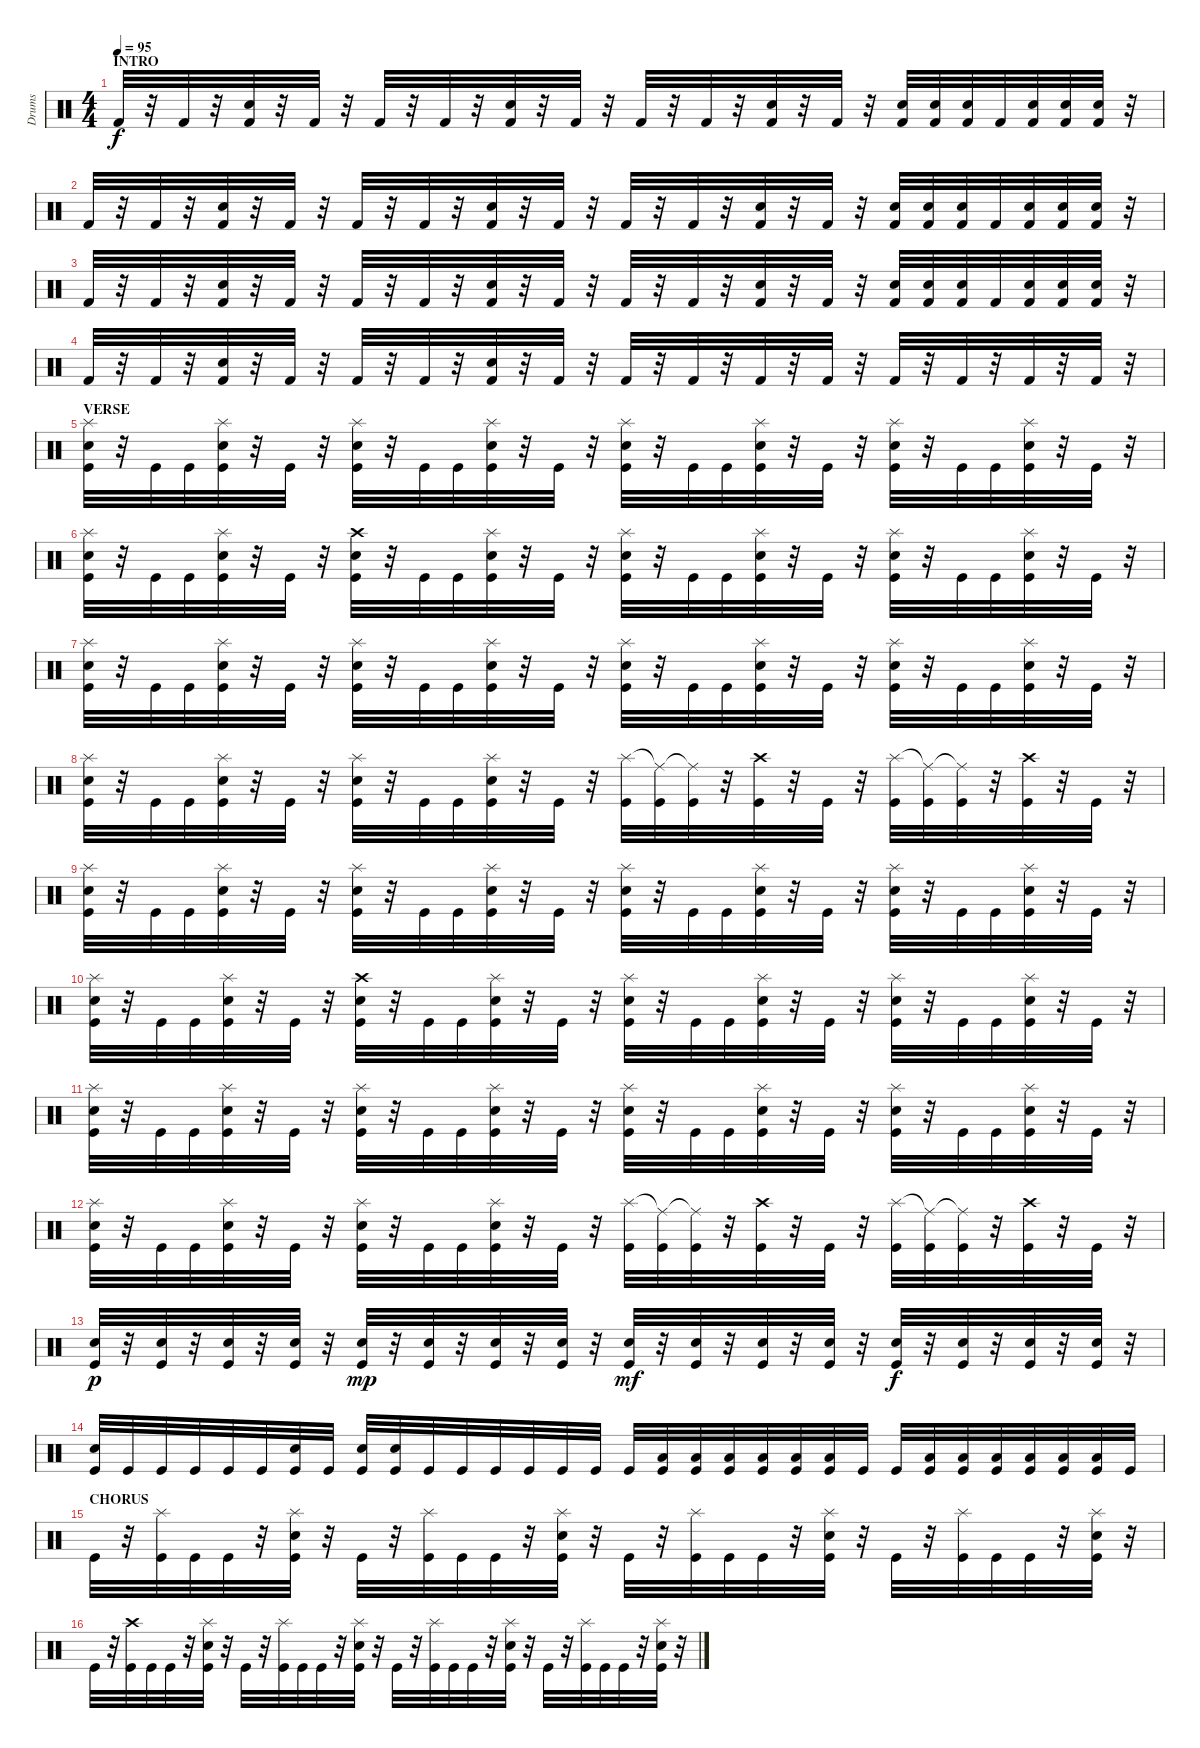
\track ("Drums" "Drums") {instrument percussion}
\staff {score}
\articulation defaults
\ts (4 4)
\section ("" "INTRO")
\tempo 95
\clef neutral
\ks c "Kick (hit) 2".32{dy f volume 8}
r.32 "Kick (hit) 2".32 r.32 ("Electric Snare (hit)" "Kick (hit) 2").32 r.32 "Kick (hit) 2".32 r.32 "Kick (hit) 2".32 r.32 "Kick (hit) 2".32 r.32 ("Electric Snare (hit)" "Kick (hit) 2").32 r.32 "Kick (hit) 2".32 r.32 "Kick (hit) 2".32 r.32 "Kick (hit) 2".32 r.32 ("Electric Snare (hit)" "Kick (hit) 2").32 r.32 "Kick (hit) 2".32 r.32 ("Electric Snare (hit)" "Kick (hit) 2").32 ("Electric Snare (hit)" "Kick (hit) 2").32 ("Electric Snare (hit)" "Kick (hit) 2").32 "Kick (hit) 2".32 ("Electric Snare (hit)" "Kick (hit) 2").32 ("Electric Snare (hit)" "Kick (hit) 2").32 ("Electric Snare (hit)" "Kick (hit) 2").32 r.32 |
"Kick (hit) 2".32 r.32 "Kick (hit) 2".32 r.32 ("Electric Snare (hit)" "Kick (hit) 2").32 r.32 "Kick (hit) 2".32 r.32 "Kick (hit) 2".32 r.32 "Kick (hit) 2".32 r.32 ("Electric Snare (hit)" "Kick (hit) 2").32 r.32 "Kick (hit) 2".32 r.32 "Kick (hit) 2".32 r.32 "Kick (hit) 2".32 r.32 ("Electric Snare (hit)" "Kick (hit) 2").32 r.32 "Kick (hit) 2".32 r.32 ("Electric Snare (hit)" "Kick (hit) 2").32 ("Electric Snare (hit)" "Kick (hit) 2").32 ("Electric Snare (hit)" "Kick (hit) 2").32 "Kick (hit) 2".32 ("Electric Snare (hit)" "Kick (hit) 2").32 ("Electric Snare (hit)" "Kick (hit) 2").32 ("Electric Snare (hit)" "Kick (hit) 2").32 r.32 |
"Kick (hit) 2".32 r.32 "Kick (hit) 2".32 r.32 ("Electric Snare (hit)" "Kick (hit) 2").32 r.32 "Kick (hit) 2".32 r.32 "Kick (hit) 2".32 r.32 "Kick (hit) 2".32 r.32 ("Electric Snare (hit)" "Kick (hit) 2").32 r.32 "Kick (hit) 2".32 r.32 "Kick (hit) 2".32 r.32 "Kick (hit) 2".32 r.32 ("Electric Snare (hit)" "Kick (hit) 2").32 r.32 "Kick (hit) 2".32 r.32 ("Electric Snare (hit)" "Kick (hit) 2").32 ("Electric Snare (hit)" "Kick (hit) 2").32 ("Electric Snare (hit)" "Kick (hit) 2").32 "Kick (hit) 2".32 ("Electric Snare (hit)" "Kick (hit) 2").32 ("Electric Snare (hit)" "Kick (hit) 2").32 ("Electric Snare (hit)" "Kick (hit) 2").32 r.32 |
"Kick (hit) 2".32 r.32 "Kick (hit) 2".32 r.32 ("Electric Snare (hit)" "Kick (hit) 2").32 r.32 "Kick (hit) 2".32 r.32 "Kick (hit) 2".32 r.32 "Kick (hit) 2".32 r.32 ("Electric Snare (hit)" "Kick (hit) 2").32 r.32 "Kick (hit) 2".32 r.32 "Kick (hit) 2".32 r.32 "Kick (hit) 2".32 r.32 "Kick (hit) 2".32 r.32 "Kick (hit) 2".32 r.32 "Kick (hit) 2".32 r.32 "Kick (hit) 2".32 r.32 "Kick (hit) 2".32 r.32 "Kick (hit) 2".32 r.32 |
\section ("" "VERSE")
("Splash (hit)" "Snare (hit) 2" "Kick (hit)").32{volume 12} r.32 "Kick (hit)".32 "Kick (hit)".32 ("Splash (hit)" "Snare (hit) 2" "Kick (hit)").32 r.32 "Kick (hit)".32 r.32 ("Splash (hit)" "Snare (hit) 2" "Kick (hit)").32 r.32 "Kick (hit)".32 "Kick (hit)".32 ("Splash (hit)" "Snare (hit) 2" "Kick (hit)").32 r.32 "Kick (hit)".32 r.32 ("Splash (hit)" "Snare (hit) 2" "Kick (hit)").32 r.32 "Kick (hit)".32 "Kick (hit)".32 ("Splash (hit)" "Snare (hit) 2" "Kick (hit)").32 r.32 "Kick (hit)".32 r.32 ("Splash (hit)" "Snare (hit) 2" "Kick (hit)").32 r.32 "Kick (hit)".32 "Kick (hit)".32 ("Splash (hit)" "Snare (hit) 2" "Kick (hit)").32 r.32 "Kick (hit)".32 r.32 |
("Splash (hit)" "Snare (hit) 2" "Kick (hit)").32 r.32 "Kick (hit)".32 "Kick (hit)".32 ("Splash (hit)" "Snare (hit) 2" "Kick (hit)").32 r.32 "Kick (hit)".32 r.32 ("Crash high (hit)" "Snare (hit) 2" "Kick (hit)").32 r.32 "Kick (hit)".32 "Kick (hit)".32 ("Splash (hit)" "Snare (hit) 2" "Kick (hit)").32 r.32 "Kick (hit)".32 r.32 ("Splash (hit)" "Snare (hit) 2" "Kick (hit)").32 r.32 "Kick (hit)".32 "Kick (hit)".32 ("Splash (hit)" "Snare (hit) 2" "Kick (hit)").32 r.32 "Kick (hit)".32 r.32 ("Splash (hit)" "Snare (hit) 2" "Kick (hit)").32 r.32 "Kick (hit)".32 "Kick (hit)".32 ("Splash (hit)" "Snare (hit) 2" "Kick (hit)").32 r.32 "Kick (hit)".32 r.32 |
("Splash (hit)" "Snare (hit) 2" "Kick (hit)").32 r.32 "Kick (hit)".32 "Kick (hit)".32 ("Splash (hit)" "Snare (hit) 2" "Kick (hit)").32 r.32 "Kick (hit)".32 r.32 ("Splash (hit)" "Snare (hit) 2" "Kick (hit)").32 r.32 "Kick (hit)".32 "Kick (hit)".32 ("Splash (hit)" "Snare (hit) 2" "Kick (hit)").32 r.32 "Kick (hit)".32 r.32 ("Splash (hit)" "Snare (hit) 2" "Kick (hit)").32 r.32 "Kick (hit)".32 "Kick (hit)".32 ("Splash (hit)" "Snare (hit) 2" "Kick (hit)").32 r.32 "Kick (hit)".32 r.32 ("Splash (hit)" "Snare (hit) 2" "Kick (hit)").32 r.32 "Kick (hit)".32 "Kick (hit)".32 ("Splash (hit)" "Snare (hit) 2" "Kick (hit)").32 r.32 "Kick (hit)".32 r.32 |
("Splash (hit)" "Snare (hit) 2" "Kick (hit)").32 r.32 "Kick (hit)".32 "Kick (hit)".32 ("Splash (hit)" "Snare (hit) 2" "Kick (hit)").32 r.32 "Kick (hit)".32 r.32 ("Splash (hit)" "Snare (hit) 2" "Kick (hit)").32 r.32 "Kick (hit)".32 "Kick (hit)".32 ("Splash (hit)" "Snare (hit) 2" "Kick (hit)").32 r.32 "Kick (hit)".32 r.32 ("Splash (hit)" "Kick (hit)").32 ("Ride (middle)"{t} "Kick (hit)").32 ("Ride (middle)"{t} "Kick (hit)").32 r.32 ("Crash high (hit)" "Kick (hit)").32 r.32 "Kick (hit)".32 r.32 ("Splash (hit)" "Kick (hit)").32 ("Ride (middle)"{t} "Kick (hit)").32 ("Ride (middle)"{t} "Kick (hit)").32 r.32 ("Crash high (hit)" "Kick (hit)").32 r.32 "Kick (hit)".32 r.32 |
("Splash (hit)" "Snare (hit) 2" "Kick (hit)").32{volume 12} r.32 "Kick (hit)".32 "Kick (hit)".32 ("Splash (hit)" "Snare (hit) 2" "Kick (hit)").32 r.32 "Kick (hit)".32 r.32 ("Splash (hit)" "Snare (hit) 2" "Kick (hit)").32 r.32 "Kick (hit)".32 "Kick (hit)".32 ("Splash (hit)" "Snare (hit) 2" "Kick (hit)").32 r.32 "Kick (hit)".32 r.32 ("Splash (hit)" "Snare (hit) 2" "Kick (hit)").32 r.32 "Kick (hit)".32 "Kick (hit)".32 ("Splash (hit)" "Snare (hit) 2" "Kick (hit)").32 r.32 "Kick (hit)".32 r.32 ("Splash (hit)" "Snare (hit) 2" "Kick (hit)").32 r.32 "Kick (hit)".32 "Kick (hit)".32 ("Splash (hit)" "Snare (hit) 2" "Kick (hit)").32 r.32 "Kick (hit)".32 r.32 |
("Splash (hit)" "Snare (hit) 2" "Kick (hit)").32 r.32 "Kick (hit)".32 "Kick (hit)".32 ("Splash (hit)" "Snare (hit) 2" "Kick (hit)").32 r.32 "Kick (hit)".32 r.32 ("Crash high (hit)" "Snare (hit) 2" "Kick (hit)").32 r.32 "Kick (hit)".32 "Kick (hit)".32 ("Splash (hit)" "Snare (hit) 2" "Kick (hit)").32 r.32 "Kick (hit)".32 r.32 ("Splash (hit)" "Snare (hit) 2" "Kick (hit)").32 r.32 "Kick (hit)".32 "Kick (hit)".32 ("Splash (hit)" "Snare (hit) 2" "Kick (hit)").32 r.32 "Kick (hit)".32 r.32 ("Splash (hit)" "Snare (hit) 2" "Kick (hit)").32 r.32 "Kick (hit)".32 "Kick (hit)".32 ("Splash (hit)" "Snare (hit) 2" "Kick (hit)").32 r.32 "Kick (hit)".32 r.32 |
("Splash (hit)" "Snare (hit) 2" "Kick (hit)").32 r.32 "Kick (hit)".32 "Kick (hit)".32 ("Splash (hit)" "Snare (hit) 2" "Kick (hit)").32 r.32 "Kick (hit)".32 r.32 ("Splash (hit)" "Snare (hit) 2" "Kick (hit)").32 r.32 "Kick (hit)".32 "Kick (hit)".32 ("Splash (hit)" "Snare (hit) 2" "Kick (hit)").32 r.32 "Kick (hit)".32 r.32 ("Splash (hit)" "Snare (hit) 2" "Kick (hit)").32 r.32 "Kick (hit)".32 "Kick (hit)".32 ("Splash (hit)" "Snare (hit) 2" "Kick (hit)").32 r.32 "Kick (hit)".32 r.32 ("Splash (hit)" "Snare (hit) 2" "Kick (hit)").32 r.32 "Kick (hit)".32 "Kick (hit)".32 ("Splash (hit)" "Snare (hit) 2" "Kick (hit)").32 r.32 "Kick (hit)".32 r.32 |
("Splash (hit)" "Snare (hit) 2" "Kick (hit)").32 r.32 "Kick (hit)".32 "Kick (hit)".32 ("Splash (hit)" "Snare (hit) 2" "Kick (hit)").32 r.32 "Kick (hit)".32 r.32 ("Splash (hit)" "Snare (hit) 2" "Kick (hit)").32 r.32 "Kick (hit)".32 "Kick (hit)".32 ("Splash (hit)" "Snare (hit) 2" "Kick (hit)").32 r.32 "Kick (hit)".32 r.32 ("Splash (hit)" "Kick (hit)").32 ("Ride (middle)"{t} "Kick (hit)").32 ("Ride (middle)"{t} "Kick (hit)").32 r.32 ("Crash high (hit)" "Kick (hit)").32 r.32 "Kick (hit)".32 r.32 ("Splash (hit)" "Kick (hit)").32 ("Ride (middle)"{t} "Kick (hit)").32 ("Ride (middle)"{t} "Kick (hit)").32 r.32 ("Crash high (hit)" "Kick (hit)").32 r.32 "Kick (hit)".32 r.32 |
("Snare (hit) 2" "Kick (hit)").32{dy p} r.32 ("Snare (hit) 2" "Kick (hit)").32 r.32 ("Snare (hit) 2" "Kick (hit)").32 r.32 ("Snare (hit) 2" "Kick (hit)").32 r.32 ("Snare (hit) 2" "Kick (hit)").32{dy mp} r.32 ("Snare (hit) 2" "Kick (hit)").32 r.32 ("Snare (hit) 2" "Kick (hit)").32 r.32 ("Snare (hit) 2" "Kick (hit)").32 r.32 ("Snare (hit) 2" "Kick (hit)").32{dy mf} r.32 ("Snare (hit) 2" "Kick (hit)").32 r.32 ("Snare (hit) 2" "Kick (hit)").32 r.32 ("Snare (hit) 2" "Kick (hit)").32 r.32 ("Snare (hit) 2" "Kick (hit)").32{dy f} r.32 ("Snare (hit) 2" "Kick (hit)").32 r.32 ("Snare (hit) 2" "Kick (hit)").32 r.32 ("Snare (hit) 2" "Kick (hit)").32 r.32 |
("Snare (hit) 2" "Kick (hit)").32 "Kick (hit)".32 "Kick (hit)".32 "Kick (hit)".32 "Kick (hit)".32 "Kick (hit)".32 ("Snare (hit) 2" "Kick (hit)").32 "Kick (hit)".32 ("Snare (hit) 2" "Kick (hit)").32 ("Snare (hit) 2" "Kick (hit)").32 "Kick (hit)".32 "Kick (hit)".32 "Kick (hit)".32 "Kick (hit)".32 "Kick (hit)".32 "Kick (hit)".32 "Kick (hit)".32 ("Low Tom (hit)" "Kick (hit)").32 ("Low Tom (hit)" "Kick (hit)").32 ("Low Tom (hit)" "Kick (hit)").32 ("Low Tom (hit)" "Kick (hit)").32 ("Low Tom (hit)" "Kick (hit)").32 ("Low Tom (hit)" "Kick (hit)").32 "Kick (hit)".32 "Kick (hit)".32 ("Low Tom (hit)" "Kick (hit)").32 ("Low Tom (hit)" "Kick (hit)").32 ("Low Tom (hit)" "Kick (hit)").32 ("Low Tom (hit)" "Kick (hit)").32 ("Low Tom (hit)" "Kick (hit)").32 ("Low Tom (hit)" "Kick (hit)").32 "Kick (hit)".32 |
\section ("" "CHORUS")
"Kick (hit)".32 r.32 ("Splash (hit)" "Kick (hit)").32 "Kick (hit)".32 "Kick (hit)".32 r.32 ("Splash (hit)" "Snare (hit) 2" "Kick (hit)").32 r.32 "Kick (hit)".32 r.32 ("Splash (hit)" "Kick (hit)").32 "Kick (hit)".32 "Kick (hit)".32 r.32 ("Splash (hit)" "Snare (hit) 2" "Kick (hit)").32 r.32 "Kick (hit)".32 r.32 ("Splash (hit)" "Kick (hit)").32 "Kick (hit)".32 "Kick (hit)".32 r.32 ("Splash (hit)" "Snare (hit) 2" "Kick (hit)").32 r.32 "Kick (hit)".32 r.32 ("Splash (hit)" "Kick (hit)").32 "Kick (hit)".32 "Kick (hit)".32 r.32 ("Splash (hit)" "Snare (hit) 2" "Kick (hit)").32 r.32 |
"Kick (hit)".32 r.32 ("Crash high (hit)" "Kick (hit)").32 "Kick (hit)".32 "Kick (hit)".32 r.32 ("Splash (hit)" "Snare (hit) 2" "Kick (hit)").32 r.32 "Kick (hit)".32 r.32 ("Splash (hit)" "Kick (hit)").32 "Kick (hit)".32 "Kick (hit)".32 r.32 ("Splash (hit)" "Snare (hit) 2" "Kick (hit)").32 r.32 "Kick (hit)".32 r.32 ("Splash (hit)" "Kick (hit)").32 "Kick (hit)".32 "Kick (hit)".32 r.32 ("Splash (hit)" "Snare (hit) 2" "Kick (hit)").32 r.32 "Kick (hit)".32 r.32 ("Splash (hit)" "Kick (hit)").32 "Kick (hit)".32 "Kick (hit)".32 r.32 ("Splash (hit)" "Snare (hit) 2" "Kick (hit)").32 r.32
